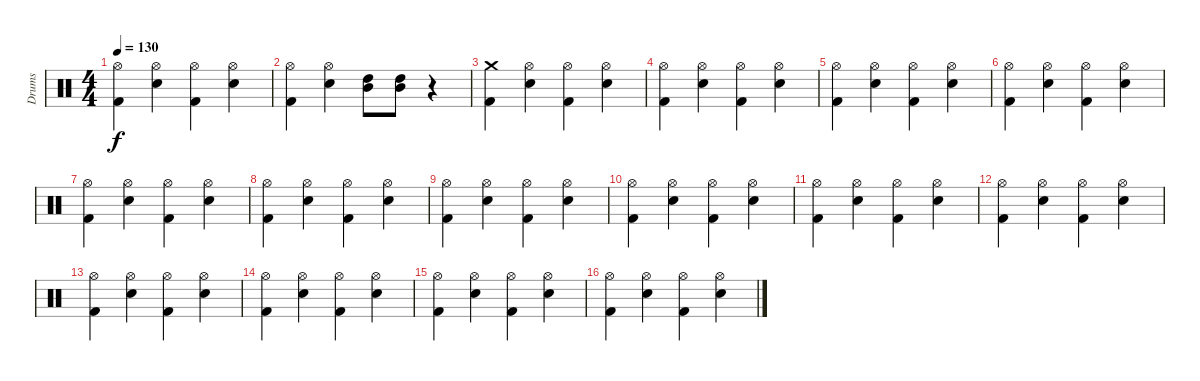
\track ("Drums" "Drums") {instrument percussion}
\staff {score}
\articulation defaults
\ts (4 4)
\tempo 130
\clef neutral
\ks c
("Hi-Hat (open)" "Kick (hit) 2").4{dy f} ("Hi-Hat (open)" "Electric Snare (hit)").4 ("Hi-Hat (open)" "Kick (hit) 2").4 ("Hi-Hat (open)" "Electric Snare (hit)").4 |
("Hi-Hat (open)" "Kick (hit) 2").4 ("Hi-Hat (open)" "Electric Snare (hit)").4 ("High Tom (hit)" "Mid Tom (hit)").8 ("High Tom (hit)" "Mid Tom (hit)").8 r.4 |
("Crash medium (hit)" "Kick (hit) 2").4 ("Hi-Hat (open)" "Electric Snare (hit)").4 ("Hi-Hat (open)" "Kick (hit) 2").4 ("Hi-Hat (open)" "Electric Snare (hit)").4 |
("Hi-Hat (open)" "Kick (hit) 2").4 ("Hi-Hat (open)" "Electric Snare (hit)").4 ("Hi-Hat (open)" "Kick (hit) 2").4 ("Hi-Hat (open)" "Electric Snare (hit)").4 |
("Hi-Hat (open)" "Kick (hit) 2").4 ("Hi-Hat (open)" "Electric Snare (hit)").4 ("Hi-Hat (open)" "Kick (hit) 2").4 ("Hi-Hat (open)" "Electric Snare (hit)").4 |
("Hi-Hat (open)" "Kick (hit) 2").4 ("Hi-Hat (open)" "Electric Snare (hit)").4 ("Hi-Hat (open)" "Kick (hit) 2").4 ("Hi-Hat (open)" "Electric Snare (hit)").4 |
("Hi-Hat (open)" "Kick (hit) 2").4 ("Hi-Hat (open)" "Electric Snare (hit)").4 ("Hi-Hat (open)" "Kick (hit) 2").4 ("Hi-Hat (open)" "Electric Snare (hit)").4 |
("Hi-Hat (open)" "Kick (hit) 2").4 ("Hi-Hat (open)" "Electric Snare (hit)").4 ("Hi-Hat (open)" "Kick (hit) 2").4 ("Hi-Hat (open)" "Electric Snare (hit)").4 |
("Hi-Hat (open)" "Kick (hit) 2").4 ("Hi-Hat (open)" "Electric Snare (hit)").4 ("Hi-Hat (open)" "Kick (hit) 2").4 ("Hi-Hat (open)" "Electric Snare (hit)").4 |
("Hi-Hat (open)" "Kick (hit) 2").4 ("Hi-Hat (open)" "Electric Snare (hit)").4 ("Hi-Hat (open)" "Kick (hit) 2").4 ("Hi-Hat (open)" "Electric Snare (hit)").4 |
("Hi-Hat (open)" "Kick (hit) 2").4 ("Hi-Hat (open)" "Electric Snare (hit)").4 ("Hi-Hat (open)" "Kick (hit) 2").4 ("Hi-Hat (open)" "Electric Snare (hit)").4 |
("Hi-Hat (open)" "Kick (hit) 2").4 ("Hi-Hat (open)" "Electric Snare (hit)").4 ("Hi-Hat (open)" "Kick (hit) 2").4 ("Hi-Hat (open)" "Electric Snare (hit)").4 |
("Hi-Hat (open)" "Kick (hit) 2").4 ("Hi-Hat (open)" "Electric Snare (hit)").4 ("Hi-Hat (open)" "Kick (hit) 2").4 ("Hi-Hat (open)" "Electric Snare (hit)").4 |
("Hi-Hat (open)" "Kick (hit) 2").4 ("Hi-Hat (open)" "Electric Snare (hit)").4 ("Hi-Hat (open)" "Kick (hit) 2").4 ("Hi-Hat (open)" "Electric Snare (hit)").4 |
("Hi-Hat (open)" "Kick (hit) 2").4 ("Hi-Hat (open)" "Electric Snare (hit)").4 ("Hi-Hat (open)" "Kick (hit) 2").4 ("Hi-Hat (open)" "Electric Snare (hit)").4 |
("Hi-Hat (open)" "Kick (hit) 2").4 ("Hi-Hat (open)" "Electric Snare (hit)").4 ("Hi-Hat (open)" "Kick (hit) 2").4 ("Hi-Hat (open)" "Electric Snare (hit)").4
